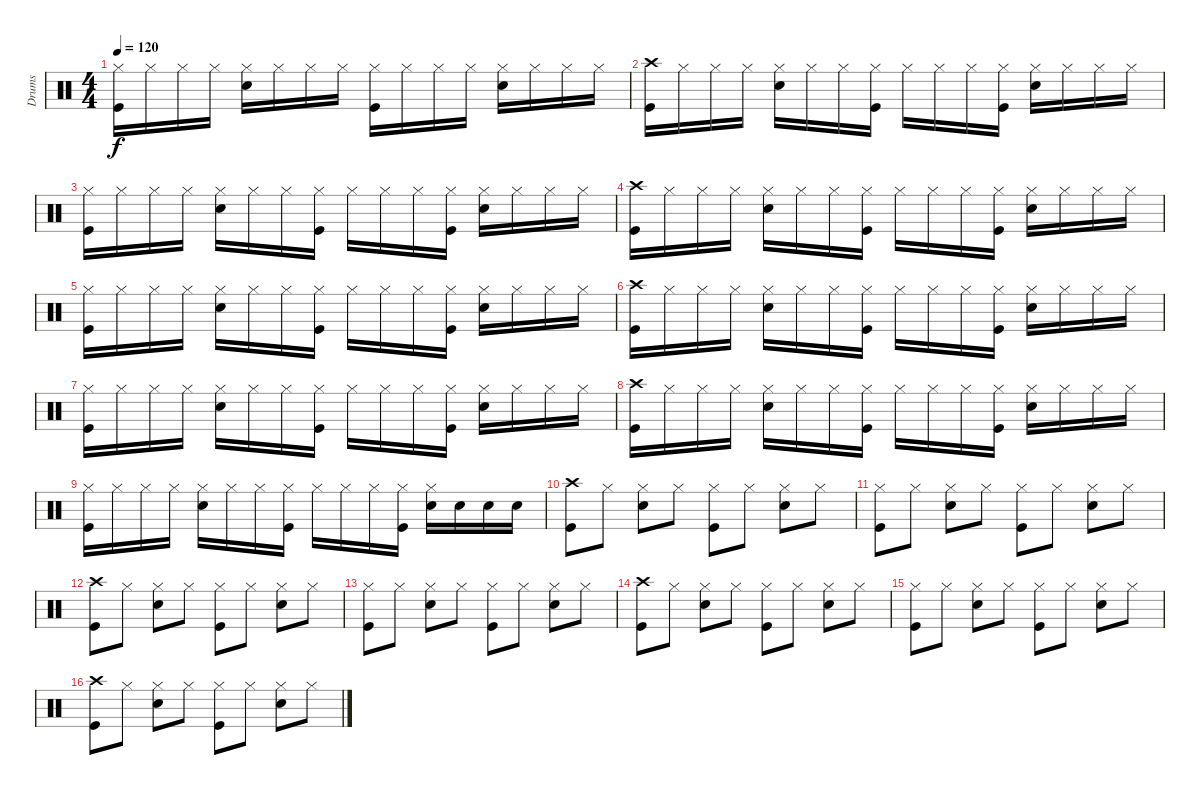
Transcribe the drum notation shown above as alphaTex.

\track ("Drums" "Drums") {instrument percussion}
\staff {score}
\articulation defaults
\ts (4 4)
\tempo 120
\clef neutral
\ks c
("Hi-Hat (closed)" "Kick (hit)").16{dy f} "Hi-Hat (closed)".16 "Hi-Hat (closed)".16 "Hi-Hat (closed)".16 ("Hi-Hat (closed)" "Electric Snare (hit)").16 "Hi-Hat (closed)".16 "Hi-Hat (closed)".16 "Hi-Hat (closed)".16 ("Hi-Hat (closed)" "Kick (hit)").16 "Hi-Hat (closed)".16 "Hi-Hat (closed)".16 "Hi-Hat (closed)".16 ("Hi-Hat (closed)" "Electric Snare (hit)").16 "Hi-Hat (closed)".16 "Hi-Hat (closed)".16 "Hi-Hat (closed)".16 |
("Crash high (hit)" "Kick (hit)").16 "Hi-Hat (closed)".16 "Hi-Hat (closed)".16 "Hi-Hat (closed)".16 ("Hi-Hat (closed)" "Electric Snare (hit)").16 "Hi-Hat (closed)".16 "Hi-Hat (closed)".16 ("Hi-Hat (closed)" "Kick (hit)").16 "Hi-Hat (closed)".16 "Hi-Hat (closed)".16 "Hi-Hat (closed)".16 ("Hi-Hat (closed)" "Kick (hit)").16 ("Hi-Hat (closed)" "Electric Snare (hit)").16 "Hi-Hat (closed)".16 "Hi-Hat (closed)".16 "Hi-Hat (closed)".16 |
("Hi-Hat (closed)" "Kick (hit)").16 "Hi-Hat (closed)".16 "Hi-Hat (closed)".16 "Hi-Hat (closed)".16 ("Hi-Hat (closed)" "Electric Snare (hit)").16 "Hi-Hat (closed)".16 "Hi-Hat (closed)".16 ("Hi-Hat (closed)" "Kick (hit)").16 "Hi-Hat (closed)".16 "Hi-Hat (closed)".16 "Hi-Hat (closed)".16 ("Hi-Hat (closed)" "Kick (hit)").16 ("Hi-Hat (closed)" "Electric Snare (hit)").16 "Hi-Hat (closed)".16 "Hi-Hat (closed)".16 "Hi-Hat (closed)".16 |
("Crash high (hit)" "Kick (hit)").16 "Hi-Hat (closed)".16 "Hi-Hat (closed)".16 "Hi-Hat (closed)".16 ("Hi-Hat (closed)" "Electric Snare (hit)").16 "Hi-Hat (closed)".16 "Hi-Hat (closed)".16 ("Hi-Hat (closed)" "Kick (hit)").16 "Hi-Hat (closed)".16 "Hi-Hat (closed)".16 "Hi-Hat (closed)".16 ("Hi-Hat (closed)" "Kick (hit)").16 ("Hi-Hat (closed)" "Electric Snare (hit)").16 "Hi-Hat (closed)".16 "Hi-Hat (closed)".16 "Hi-Hat (closed)".16 |
("Hi-Hat (closed)" "Kick (hit)").16 "Hi-Hat (closed)".16 "Hi-Hat (closed)".16 "Hi-Hat (closed)".16 ("Hi-Hat (closed)" "Electric Snare (hit)").16 "Hi-Hat (closed)".16 "Hi-Hat (closed)".16 ("Hi-Hat (closed)" "Kick (hit)").16 "Hi-Hat (closed)".16 "Hi-Hat (closed)".16 "Hi-Hat (closed)".16 ("Hi-Hat (closed)" "Kick (hit)").16 ("Hi-Hat (closed)" "Electric Snare (hit)").16 "Hi-Hat (closed)".16 "Hi-Hat (closed)".16 "Hi-Hat (closed)".16 |
("Crash high (hit)" "Kick (hit)").16 "Hi-Hat (closed)".16 "Hi-Hat (closed)".16 "Hi-Hat (closed)".16 ("Hi-Hat (closed)" "Electric Snare (hit)").16 "Hi-Hat (closed)".16 "Hi-Hat (closed)".16 ("Hi-Hat (closed)" "Kick (hit)").16 "Hi-Hat (closed)".16 "Hi-Hat (closed)".16 "Hi-Hat (closed)".16 ("Hi-Hat (closed)" "Kick (hit)").16 ("Hi-Hat (closed)" "Electric Snare (hit)").16 "Hi-Hat (closed)".16 "Hi-Hat (closed)".16 "Hi-Hat (closed)".16 |
("Hi-Hat (closed)" "Kick (hit)").16 "Hi-Hat (closed)".16 "Hi-Hat (closed)".16 "Hi-Hat (closed)".16 ("Hi-Hat (closed)" "Electric Snare (hit)").16 "Hi-Hat (closed)".16 "Hi-Hat (closed)".16 ("Hi-Hat (closed)" "Kick (hit)").16 "Hi-Hat (closed)".16 "Hi-Hat (closed)".16 "Hi-Hat (closed)".16 ("Hi-Hat (closed)" "Kick (hit)").16 ("Hi-Hat (closed)" "Electric Snare (hit)").16 "Hi-Hat (closed)".16 "Hi-Hat (closed)".16 "Hi-Hat (closed)".16 |
("Crash high (hit)" "Kick (hit)").16 "Hi-Hat (closed)".16 "Hi-Hat (closed)".16 "Hi-Hat (closed)".16 ("Hi-Hat (closed)" "Electric Snare (hit)").16 "Hi-Hat (closed)".16 "Hi-Hat (closed)".16 ("Hi-Hat (closed)" "Kick (hit)").16 "Hi-Hat (closed)".16 "Hi-Hat (closed)".16 "Hi-Hat (closed)".16 ("Hi-Hat (closed)" "Kick (hit)").16 ("Hi-Hat (closed)" "Electric Snare (hit)").16 "Hi-Hat (closed)".16 "Hi-Hat (closed)".16 "Hi-Hat (closed)".16 |
("Hi-Hat (closed)" "Kick (hit)").16 "Hi-Hat (closed)".16 "Hi-Hat (closed)".16 "Hi-Hat (closed)".16 ("Hi-Hat (closed)" "Electric Snare (hit)").16 "Hi-Hat (closed)".16 "Hi-Hat (closed)".16 ("Hi-Hat (closed)" "Kick (hit)").16 "Hi-Hat (closed)".16 "Hi-Hat (closed)".16 "Hi-Hat (closed)".16 ("Hi-Hat (closed)" "Kick (hit)").16 ("Hi-Hat (closed)" "Electric Snare (hit)").16 "Electric Snare (hit)".16 "Electric Snare (hit)".16 "Electric Snare (hit)".16 |
("Crash high (hit)" "Kick (hit)").8 "Hi-Hat (closed)".8 ("Hi-Hat (closed)" "Electric Snare (hit)").8 "Hi-Hat (closed)".8 ("Hi-Hat (closed)" "Kick (hit)").8 "Hi-Hat (closed)".8 ("Hi-Hat (closed)" "Electric Snare (hit)").8 "Hi-Hat (closed)".8 |
("Hi-Hat (closed)" "Kick (hit)").8 "Hi-Hat (closed)".8 ("Hi-Hat (closed)" "Electric Snare (hit)").8 "Hi-Hat (closed)".8 ("Hi-Hat (closed)" "Kick (hit)").8 "Hi-Hat (closed)".8 ("Hi-Hat (closed)" "Electric Snare (hit)").8 "Hi-Hat (closed)".8 |
("Crash high (hit)" "Kick (hit)").8 "Hi-Hat (closed)".8 ("Hi-Hat (closed)" "Electric Snare (hit)").8 "Hi-Hat (closed)".8 ("Hi-Hat (closed)" "Kick (hit)").8 "Hi-Hat (closed)".8 ("Hi-Hat (closed)" "Electric Snare (hit)").8 "Hi-Hat (closed)".8 |
("Hi-Hat (closed)" "Kick (hit)").8 "Hi-Hat (closed)".8 ("Hi-Hat (closed)" "Electric Snare (hit)").8 "Hi-Hat (closed)".8 ("Hi-Hat (closed)" "Kick (hit)").8 "Hi-Hat (closed)".8 ("Hi-Hat (closed)" "Electric Snare (hit)").8 "Hi-Hat (closed)".8 |
("Crash high (hit)" "Kick (hit)").8 "Hi-Hat (closed)".8 ("Hi-Hat (closed)" "Electric Snare (hit)").8 "Hi-Hat (closed)".8 ("Hi-Hat (closed)" "Kick (hit)").8 "Hi-Hat (closed)".8 ("Hi-Hat (closed)" "Electric Snare (hit)").8 "Hi-Hat (closed)".8 |
("Hi-Hat (closed)" "Kick (hit)").8 "Hi-Hat (closed)".8 ("Hi-Hat (closed)" "Electric Snare (hit)").8 "Hi-Hat (closed)".8 ("Hi-Hat (closed)" "Kick (hit)").8 "Hi-Hat (closed)".8 ("Hi-Hat (closed)" "Electric Snare (hit)").8 "Hi-Hat (closed)".8 |
("Crash high (hit)" "Kick (hit)").8 "Hi-Hat (closed)".8 ("Hi-Hat (closed)" "Electric Snare (hit)").8 "Hi-Hat (closed)".8 ("Hi-Hat (closed)" "Kick (hit)").8 "Hi-Hat (closed)".8 ("Hi-Hat (closed)" "Electric Snare (hit)").8 "Hi-Hat (closed)".8
